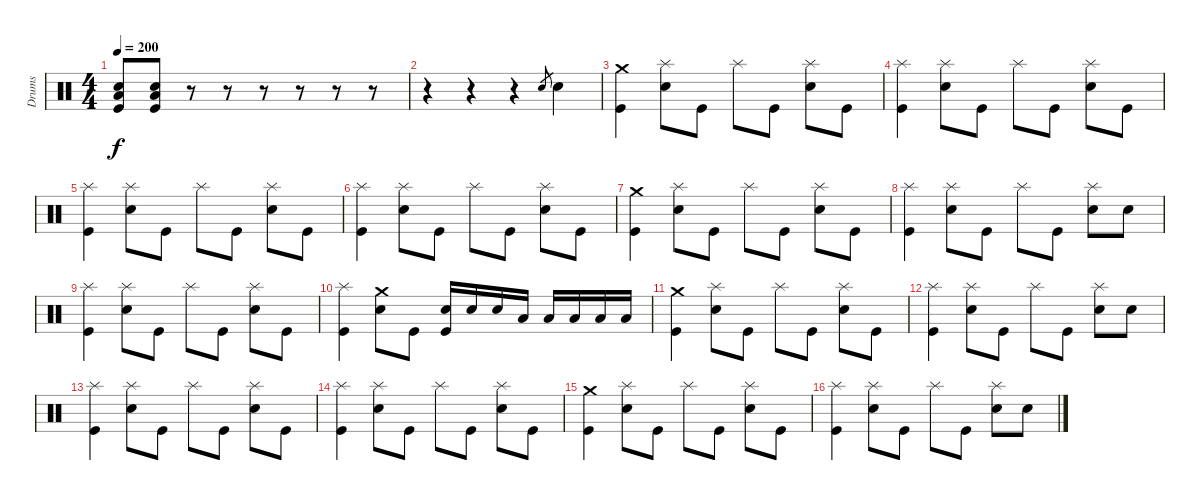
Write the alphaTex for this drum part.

\track ("Drums" "Drums") {instrument percussion}
\staff {score}
\articulation defaults
\ts (4 4)
\tempo 200
\clef neutral
\ks c
("Low Floor Tom (hit)" "Electric Snare (hit)" "Kick (hit)").8{dy f} ("Low Floor Tom (hit)" "Electric Snare (hit)" "Kick (hit)").8 r.8 r.8 r.8 r.8 r.8 r.8 |
r.4 r.4 r.4 "Electric Snare (hit)".8{gr} "Electric Snare (hit)".4 |
("Crash medium (hit)" "Kick (hit)").4 ("Splash (hit)" "Electric Snare (hit)").8 "Kick (hit)".8 "Splash (hit)".8 "Kick (hit)".8 ("Splash (hit)" "Electric Snare (hit)").8 "Kick (hit)".8 |
("Splash (hit)" "Kick (hit)").4 ("Splash (hit)" "Electric Snare (hit)").8 "Kick (hit)".8 "Splash (hit)".8 "Kick (hit)".8 ("Splash (hit)" "Electric Snare (hit)").8 "Kick (hit)".8 |
("Splash (hit)" "Kick (hit)").4 ("Splash (hit)" "Electric Snare (hit)").8 "Kick (hit)".8 "Splash (hit)".8 "Kick (hit)".8 ("Splash (hit)" "Electric Snare (hit)").8 "Kick (hit)".8 |
("Splash (hit)" "Kick (hit)").4 ("Splash (hit)" "Electric Snare (hit)").8 "Kick (hit)".8 "Splash (hit)".8 "Kick (hit)".8 ("Splash (hit)" "Electric Snare (hit)").8 "Kick (hit)".8 |
("Crash medium (hit)" "Kick (hit)").4 ("Splash (hit)" "Electric Snare (hit)").8 "Kick (hit)".8 "Splash (hit)".8 "Kick (hit)".8 ("Splash (hit)" "Electric Snare (hit)").8 "Kick (hit)".8 |
("Splash (hit)" "Kick (hit)").4 ("Splash (hit)" "Electric Snare (hit)").8 "Kick (hit)".8 "Splash (hit)".8 "Kick (hit)".8 ("Splash (hit)" "Electric Snare (hit)").8 "Electric Snare (hit)".8 |
("Splash (hit)" "Kick (hit)").4 ("Splash (hit)" "Electric Snare (hit)").8 "Kick (hit)".8 "Splash (hit)".8 "Kick (hit)".8 ("Splash (hit)" "Electric Snare (hit)").8 "Kick (hit)".8 |
("Splash (hit)" "Kick (hit)").4 ("Crash medium (hit)" "Electric Snare (hit)").8 "Kick (hit)".8 ("Electric Snare (hit)" "Kick (hit)").16 "Electric Snare (hit)".16 "Electric Snare (hit)".16 "Low Tom (hit)".16 "Low Tom (hit)".16 "Low Tom (hit)".16 "Low Tom (hit)".16 "Low Tom (hit)".16 |
("Crash medium (hit)" "Kick (hit)").4 ("Splash (hit)" "Electric Snare (hit)").8 "Kick (hit)".8 "Splash (hit)".8 "Kick (hit)".8 ("Splash (hit)" "Electric Snare (hit)").8 "Kick (hit)".8 |
("Splash (hit)" "Kick (hit)").4 ("Splash (hit)" "Electric Snare (hit)").8 "Kick (hit)".8 "Splash (hit)".8 "Kick (hit)".8 ("Splash (hit)" "Electric Snare (hit)").8 "Electric Snare (hit)".8 |
("Splash (hit)" "Kick (hit)").4 ("Splash (hit)" "Electric Snare (hit)").8 "Kick (hit)".8 "Splash (hit)".8 "Kick (hit)".8 ("Splash (hit)" "Electric Snare (hit)").8 "Kick (hit)".8 |
("Splash (hit)" "Kick (hit)").4 ("Splash (hit)" "Electric Snare (hit)").8 "Kick (hit)".8 "Splash (hit)".8 "Kick (hit)".8 ("Splash (hit)" "Electric Snare (hit)").8 "Kick (hit)".8 |
("Crash medium (hit)" "Kick (hit)").4 ("Splash (hit)" "Electric Snare (hit)").8 "Kick (hit)".8 "Splash (hit)".8 "Kick (hit)".8 ("Splash (hit)" "Electric Snare (hit)").8 "Kick (hit)".8 |
("Splash (hit)" "Kick (hit)").4 ("Splash (hit)" "Electric Snare (hit)").8 "Kick (hit)".8 "Splash (hit)".8 "Kick (hit)".8 ("Splash (hit)" "Electric Snare (hit)").8 "Electric Snare (hit)".8
